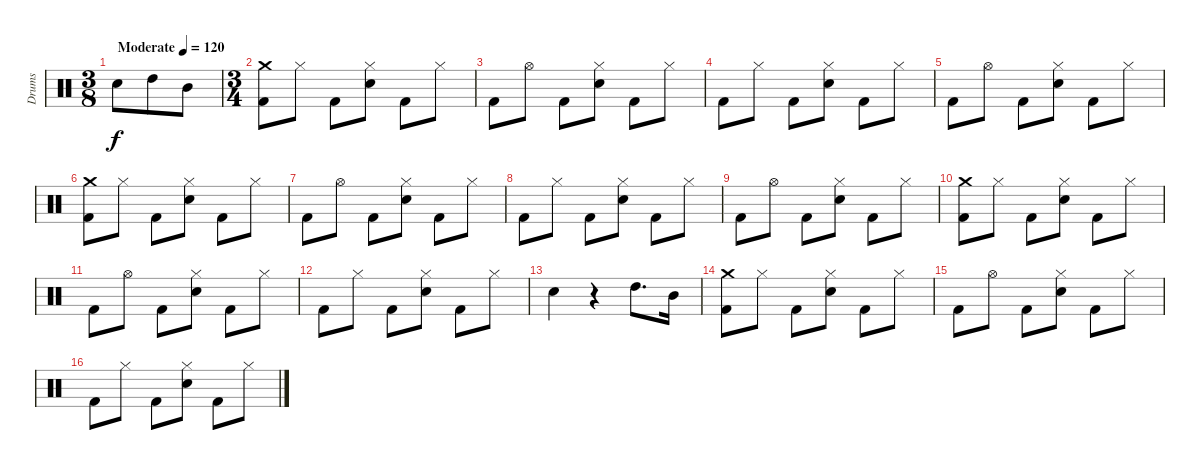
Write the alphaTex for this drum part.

\track ("Drums" "Drums") {instrument percussion}
\staff {score}
\articulation defaults
\ts (3 8)
\tempo (120 "Moderate")
\clef neutral
\ks c "Electric Snare (hit)".8{dy f} "High Tom (hit)".8 "Mid Tom (hit)".8
|
\ts (3 4)
("Crash medium (hit)" "Kick (hit) 2").8 "Hi-Hat (closed)".8 "Kick (hit) 2".8 ("Hi-Hat (closed)" "Electric Snare (hit)").8 "Kick (hit) 2".8 "Hi-Hat (closed)".8 |
"Kick (hit) 2".8 "Hi-Hat (open)".8 "Kick (hit) 2".8 ("Hi-Hat (closed)" "Electric Snare (hit)").8 "Kick (hit) 2".8 "Hi-Hat (closed)".8 |
"Kick (hit) 2".8 "Hi-Hat (closed)".8 "Kick (hit) 2".8 ("Hi-Hat (closed)" "Electric Snare (hit)").8 "Kick (hit) 2".8 "Hi-Hat (closed)".8 |
"Kick (hit) 2".8 "Hi-Hat (open)".8 "Kick (hit) 2".8 ("Hi-Hat (closed)" "Electric Snare (hit)").8 "Kick (hit) 2".8 "Hi-Hat (closed)".8 |
("Crash medium (hit)" "Kick (hit) 2").8 "Hi-Hat (closed)".8 "Kick (hit) 2".8 ("Hi-Hat (closed)" "Electric Snare (hit)").8 "Kick (hit) 2".8 "Hi-Hat (closed)".8 |
"Kick (hit) 2".8 "Hi-Hat (open)".8 "Kick (hit) 2".8 ("Hi-Hat (closed)" "Electric Snare (hit)").8 "Kick (hit) 2".8 "Hi-Hat (closed)".8 |
"Kick (hit) 2".8 "Hi-Hat (closed)".8 "Kick (hit) 2".8 ("Hi-Hat (closed)" "Electric Snare (hit)").8 "Kick (hit) 2".8 "Hi-Hat (closed)".8 |
"Kick (hit) 2".8 "Hi-Hat (open)".8 "Kick (hit) 2".8 ("Hi-Hat (closed)" "Electric Snare (hit)").8 "Kick (hit) 2".8 "Hi-Hat (closed)".8 |
("Crash medium (hit)" "Kick (hit) 2").8 "Hi-Hat (closed)".8 "Kick (hit) 2".8 ("Hi-Hat (closed)" "Electric Snare (hit)").8 "Kick (hit) 2".8 "Hi-Hat (closed)".8 |
"Kick (hit) 2".8 "Hi-Hat (open)".8 "Kick (hit) 2".8 ("Hi-Hat (closed)" "Electric Snare (hit)").8 "Kick (hit) 2".8 "Hi-Hat (closed)".8 |
"Kick (hit) 2".8 "Hi-Hat (closed)".8 "Kick (hit) 2".8 ("Hi-Hat (closed)" "Electric Snare (hit)").8 "Kick (hit) 2".8 "Hi-Hat (closed)".8 |
"Electric Snare (hit)".4 r.4 "High Tom (hit)".8{d} "Mid Tom (hit)".16 |
("Crash medium (hit)" "Kick (hit) 2").8 "Hi-Hat (closed)".8 "Kick (hit) 2".8 ("Hi-Hat (closed)" "Electric Snare (hit)").8 "Kick (hit) 2".8 "Hi-Hat (closed)".8 |
"Kick (hit) 2".8 "Hi-Hat (open)".8 "Kick (hit) 2".8 ("Hi-Hat (closed)" "Electric Snare (hit)").8 "Kick (hit) 2".8 "Hi-Hat (closed)".8 |
"Kick (hit) 2".8 "Hi-Hat (closed)".8 "Kick (hit) 2".8 ("Hi-Hat (closed)" "Electric Snare (hit)").8 "Kick (hit) 2".8 "Hi-Hat (closed)".8
